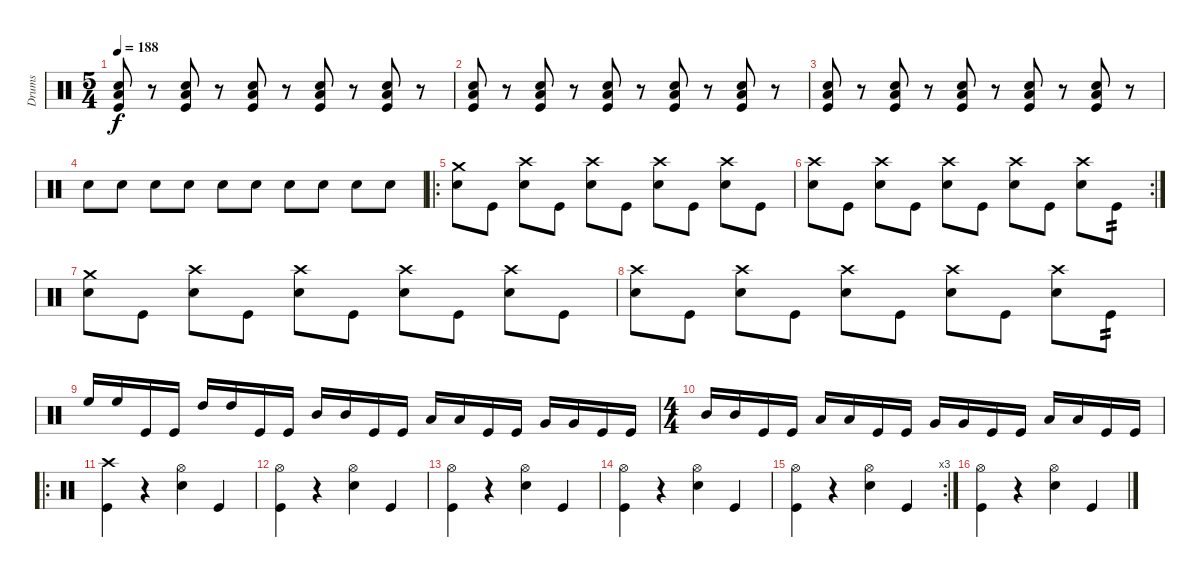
\track ("Drums" "Drums") {instrument percussion}
\staff {score}
\articulation defaults
\ts (5 4)
\tempo 188
\clef neutral
\ks c
("Electric Snare (hit)" "Low Tom (hit)" "Kick (hit)").8{dy f} r.8 ("Electric Snare (hit)" "Low Tom (hit)" "Kick (hit)").8 r.8 ("Electric Snare (hit)" "Low Tom (hit)" "Kick (hit)").8 r.8 ("Electric Snare (hit)" "Low Tom (hit)" "Kick (hit)").8 r.8 ("Electric Snare (hit)" "Low Tom (hit)" "Kick (hit)").8 r.8 |
("Electric Snare (hit)" "Low Tom (hit)" "Kick (hit)").8 r.8 ("Electric Snare (hit)" "Low Tom (hit)" "Kick (hit)").8 r.8 ("Electric Snare (hit)" "Low Tom (hit)" "Kick (hit)").8 r.8 ("Electric Snare (hit)" "Low Tom (hit)" "Kick (hit)").8 r.8 ("Electric Snare (hit)" "Low Tom (hit)" "Kick (hit)").8 r.8 |
("Electric Snare (hit)" "Low Tom (hit)" "Kick (hit)").8 r.8 ("Electric Snare (hit)" "Low Tom (hit)" "Kick (hit)").8 r.8 ("Electric Snare (hit)" "Low Tom (hit)" "Kick (hit)").8 r.8 ("Electric Snare (hit)" "Low Tom (hit)" "Kick (hit)").8 r.8 ("Electric Snare (hit)" "Low Tom (hit)" "Kick (hit)").8 r.8 |
"Electric Snare (hit)".8 "Electric Snare (hit)".8 "Electric Snare (hit)".8 "Electric Snare (hit)".8 "Electric Snare (hit)".8 "Electric Snare (hit)".8 "Electric Snare (hit)".8 "Electric Snare (hit)".8 "Electric Snare (hit)".8 "Electric Snare (hit)".8 |
\ro
("Crash medium (hit)" "Electric Snare (hit)").8 "Kick (hit)".8 ("Crash high (hit)" "Electric Snare (hit)").8 "Kick (hit)".8 ("Crash high (hit)" "Electric Snare (hit)").8 "Kick (hit)".8 ("Crash high (hit)" "Electric Snare (hit)").8 "Kick (hit)".8 ("Crash high (hit)" "Electric Snare (hit)").8 "Kick (hit)".8 |
\rc 2
("Crash high (hit)" "Electric Snare (hit)").8 "Kick (hit)".8 ("Crash high (hit)" "Electric Snare (hit)").8 "Kick (hit)".8 ("Crash high (hit)" "Electric Snare (hit)").8 "Kick (hit)".8 ("Crash high (hit)" "Electric Snare (hit)").8 "Kick (hit)".8 ("Crash high (hit)" "Electric Snare (hit)").8 "Kick (hit)".8{tp 2} |
("Crash medium (hit)" "Electric Snare (hit)").8 "Kick (hit)".8 ("Crash high (hit)" "Electric Snare (hit)").8 "Kick (hit)".8 ("Crash high (hit)" "Electric Snare (hit)").8 "Kick (hit)".8 ("Crash high (hit)" "Electric Snare (hit)").8 "Kick (hit)".8 ("Crash high (hit)" "Electric Snare (hit)").8 "Kick (hit)".8 |
("Crash high (hit)" "Electric Snare (hit)").8 "Kick (hit)".8 ("Crash high (hit)" "Electric Snare (hit)").8 "Kick (hit)".8 ("Crash high (hit)" "Electric Snare (hit)").8 "Kick (hit)".8 ("Crash high (hit)" "Electric Snare (hit)").8 "Kick (hit)".8 ("Crash high (hit)" "Electric Snare (hit)").8 "Kick (hit)".8{tp 2} |
"High Floor Tom (hit)".16 "High Floor Tom (hit)".16 "Kick (hit)".16 "Kick (hit)".16 "High Tom (hit)".16 "High Tom (hit)".16 "Kick (hit)".16 "Kick (hit)".16 "Mid Tom (hit)".16 "Mid Tom (hit)".16 "Kick (hit)".16 "Kick (hit)".16 "Low Tom (hit)".16 "Low Tom (hit)".16 "Kick (hit)".16 "Kick (hit)".16 "Very Low Tom (hit)".16 "Very Low Tom (hit)".16 "Kick (hit)".16 "Kick (hit)".16 |
\ts (4 4)
"Mid Tom (hit)".16 "Mid Tom (hit)".16 "Kick (hit)".16 "Kick (hit)".16 "Low Tom (hit)".16 "Low Tom (hit)".16 "Kick (hit)".16 "Kick (hit)".16 "Very Low Tom (hit)".16 "Very Low Tom (hit)".16 "Kick (hit)".16 "Kick (hit)".16 "Low Floor Tom (hit)".16 "Low Floor Tom (hit)".16 "Kick (hit)".16 "Kick (hit)".16 |
\ro
("Crash high (hit)" "Kick (hit)").4 r.4 ("Hi-Hat (open)" "Electric Snare (hit)").4 "Kick (hit)".4 |
("Hi-Hat (open)" "Kick (hit)").4 r.4 ("Hi-Hat (open)" "Electric Snare (hit)").4 "Kick (hit)".4 |
("Hi-Hat (open)" "Kick (hit)").4 r.4 ("Hi-Hat (open)" "Electric Snare (hit)").4 "Kick (hit)".4 |
("Hi-Hat (open)" "Kick (hit)").4 r.4 ("Hi-Hat (open)" "Electric Snare (hit)").4 "Kick (hit)".4 |
\rc 3
("Hi-Hat (open)" "Kick (hit)").4 r.4 ("Hi-Hat (open)" "Electric Snare (hit)").4 "Kick (hit)".4 |
("Hi-Hat (open)" "Kick (hit)").4 r.4 ("Hi-Hat (open)" "Electric Snare (hit)").4 "Kick (hit)".4
